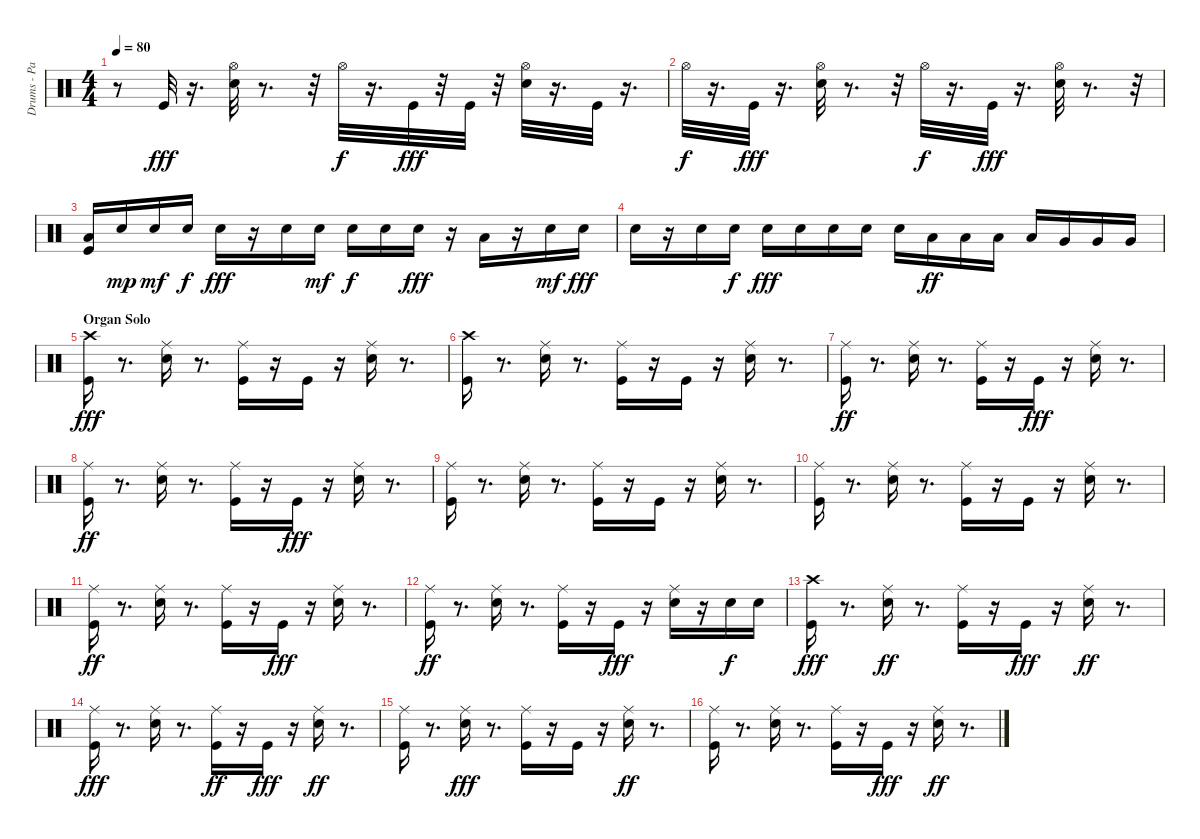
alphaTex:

\track ("Drums - Paice" "Drums - Pa") {instrument percussion}
\staff {score}
\articulation defaults
\ts (4 4)
\tempo 80
\clef neutral
\ks c
r.8{dy fff} "Kick (hit)".32 r.16{d} ("Hi-Hat (open)" "Snare (hit) 2").32 r.8{d} r.32 "Hi-Hat (open)".32{dy f} r.16{d} "Kick (hit)".32{dy fff} r.32 "Kick (hit)".32 r.32 ("Hi-Hat (open)" "Snare (hit) 2").32 r.16{d} "Kick (hit)".32 r.16{d} |
"Hi-Hat (open)".32{dy f} r.16{d} "Kick (hit)".32{dy fff} r.16{d} ("Snare (hit) 2" "Hi-Hat (open)").32 r.8{d} r.32 "Hi-Hat (open)".32{dy f} r.16{d} "Kick (hit)".32{dy fff} r.16{d} ("Hi-Hat (open)" "Snare (hit) 2").32 r.8{d} r.32 |
("Low Tom (hit)" "Kick (hit)").16 "Snare (hit) 2".16{dy mp} "Snare (hit) 2".16{dy mf} "Snare (hit) 2".16{dy f} "Snare (hit) 2".16{dy fff} r.16 "Snare (hit) 2".16 "Snare (hit) 2".16{dy mf} "Snare (hit) 2".16{dy f} "Snare (hit) 2".16 "Snare (hit) 2".16{dy fff} r.16 "Low Tom (hit)".16 r.16 "Snare (hit) 2".16{dy mf} "Snare (hit) 2".16{dy fff} |
"Snare (hit) 2".16 r.16 "Snare (hit) 2".16 "Snare (hit) 2".16{dy f} "Snare (hit) 2".16{dy fff} "Snare (hit) 2".16 "Snare (hit) 2".16 "Snare (hit) 2".16 "Snare (hit) 2".16 "Low Tom (hit)".16{dy ff} "Low Tom (hit)".16 "Low Tom (hit)".16 "Low Tom (hit)".16 "Very Low Tom (hit)".16 "Very Low Tom (hit)".16 "Very Low Tom (hit)".16 |
\section ("" "Organ Solo")
("Crash high (hit)" "Kick (hit)").16{dy fff} r.8{d} ("Ride (middle)" "Snare (hit) 2").16 r.8{d} ("Ride (middle)" "Kick (hit)").16 r.16 "Kick (hit)".16 r.16 ("Ride (middle)" "Snare (hit) 2").16 r.8{d} |
("Crash high (hit)" "Kick (hit)").16 r.8{d} ("Ride (middle)" "Snare (hit) 2").16 r.8{d} ("Ride (middle)" "Kick (hit)").16 r.16 "Kick (hit)".16 r.16 ("Ride (middle)" "Snare (hit) 2").16 r.8{d} |
("Kick (hit)" "Ride (middle)").16{dy ff} r.8{d} ("Snare (hit) 2" "Ride (middle)").16 r.8{d} ("Kick (hit)" "Ride (middle)").16 r.16 "Kick (hit)".16{dy fff} r.16 ("Ride (middle)" "Snare (hit) 2").16 r.8{d} |
("Kick (hit)" "Ride (middle)").16{dy ff} r.8{d} ("Snare (hit) 2" "Ride (middle)").16 r.8{d} ("Kick (hit)" "Ride (middle)").16 r.16 "Kick (hit)".16{dy fff} r.16 ("Ride (middle)" "Snare (hit) 2").16 r.8{d} |
("Ride (middle)" "Kick (hit)").16 r.8{d} ("Ride (middle)" "Snare (hit) 2").16 r.8{d} ("Ride (middle)" "Kick (hit)").16 r.16 "Kick (hit)".16 r.16 ("Ride (middle)" "Snare (hit) 2").16 r.8{d} |
("Ride (middle)" "Kick (hit)").16 r.8{d} ("Ride (middle)" "Snare (hit) 2").16 r.8{d} ("Ride (middle)" "Kick (hit)").16 r.16 "Kick (hit)".16 r.16 ("Ride (middle)" "Snare (hit) 2").16 r.8{d} |
("Kick (hit)" "Ride (middle)").16{dy ff} r.8{d} ("Snare (hit) 2" "Ride (middle)").16 r.8{d} ("Kick (hit)" "Ride (middle)").16 r.16 "Kick (hit)".16{dy fff} r.16 ("Ride (middle)" "Snare (hit) 2").16 r.8{d} |
("Kick (hit)" "Ride (middle)").16{dy ff} r.8{d} ("Snare (hit) 2" "Ride (middle)").16 r.8{d} ("Kick (hit)" "Ride (middle)").16 r.16 "Kick (hit)".16{dy fff} r.16 ("Ride (middle)" "Snare (hit) 2").16 r.16 "Snare (hit) 2".16{dy f} "Snare (hit) 2".16 |
("Kick (hit)" "Crash high (hit)").16{dy fff} r.8{d} ("Snare (hit) 2" "Ride (middle)").16{dy ff} r.8{d} ("Kick (hit)" "Ride (middle)").16 r.16 "Kick (hit)".16{dy fff} r.16 ("Snare (hit) 2" "Ride (middle)").16{dy ff} r.8{d} |
("Ride (middle)" "Kick (hit)").16{dy fff} r.8{d} ("Ride (middle)" "Snare (hit) 2").16 r.8{d} ("Kick (hit)" "Ride (middle)").16{dy ff} r.16 "Kick (hit)".16{dy fff} r.16 ("Snare (hit) 2" "Ride (middle)").16{dy ff} r.8{d} |
("Kick (hit)" "Ride (middle)").16 r.8{d} ("Ride (middle)" "Snare (hit) 2").16{dy fff} r.8{d} ("Ride (middle)" "Kick (hit)").16 r.16 "Kick (hit)".16 r.16 ("Snare (hit) 2" "Ride (middle)").16{dy ff} r.8{d} |
("Kick (hit)" "Ride (middle)").16 r.8{d} ("Snare (hit) 2" "Ride (middle)").16 r.8{d} ("Kick (hit)" "Ride (middle)").16 r.16 "Kick (hit)".16{dy fff} r.16 ("Snare (hit) 2" "Ride (middle)").16{dy ff} r.8{d}
